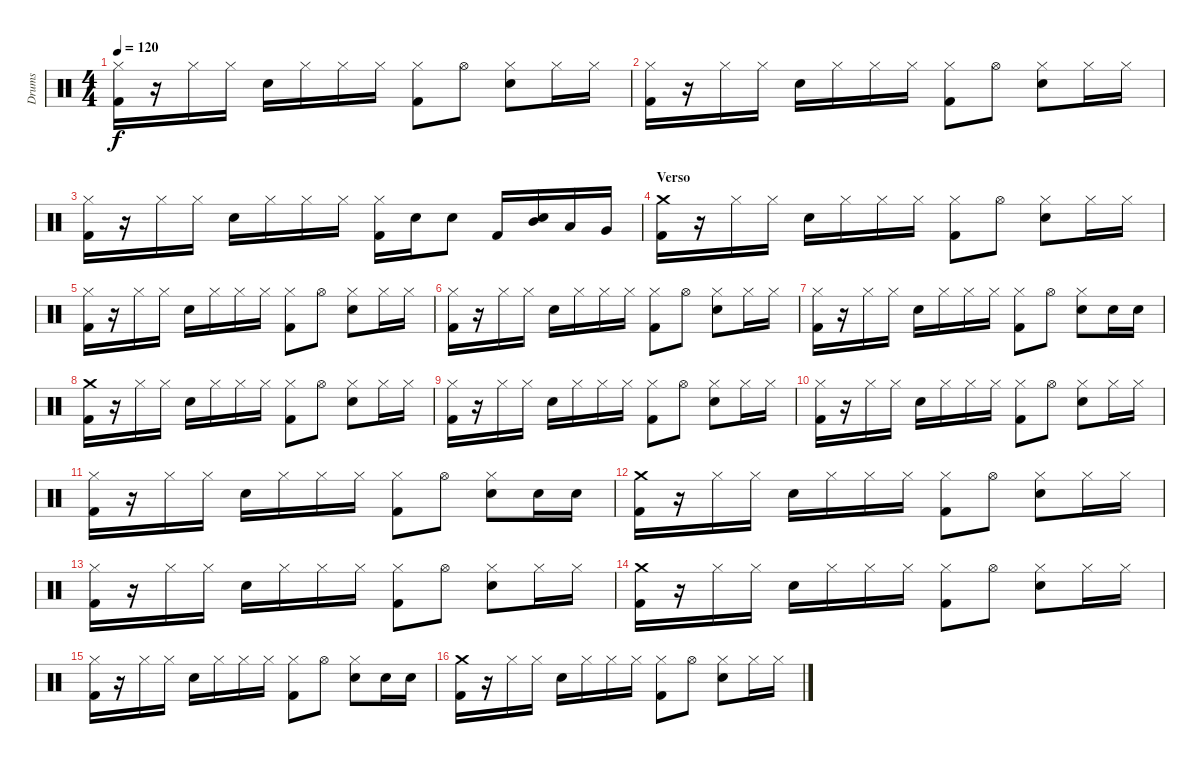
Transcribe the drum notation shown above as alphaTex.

\track ("Drums" "Drums") {instrument percussion}
\staff {score}
\articulation defaults
\ts (4 4)
\tempo 120
\clef neutral
\ks c
("Hi-Hat (closed)" "Kick (hit) 2").16{dy f} r.16 "Hi-Hat (closed)".16 "Hi-Hat (closed)".16 "Electric Snare (hit)".16 "Hi-Hat (closed)".16 "Hi-Hat (closed)".16 "Hi-Hat (closed)".16 ("Hi-Hat (closed)" "Kick (hit) 2").8 "Hi-Hat (open)".8 ("Hi-Hat (closed)" "Electric Snare (hit)").8 "Hi-Hat (closed)".16 "Hi-Hat (closed)".16 |
("Hi-Hat (closed)" "Kick (hit) 2").16 r.16 "Hi-Hat (closed)".16 "Hi-Hat (closed)".16 "Electric Snare (hit)".16 "Hi-Hat (closed)".16 "Hi-Hat (closed)".16 "Hi-Hat (closed)".16 ("Hi-Hat (closed)" "Kick (hit) 2").8 "Hi-Hat (open)".8 ("Hi-Hat (closed)" "Electric Snare (hit)").8 "Hi-Hat (closed)".16 "Hi-Hat (closed)".16 |
("Hi-Hat (closed)" "Kick (hit) 2").16 r.16 "Hi-Hat (closed)".16 "Hi-Hat (closed)".16 "Electric Snare (hit)".16 "Hi-Hat (closed)".16 "Hi-Hat (closed)".16 "Hi-Hat (closed)".16 ("Hi-Hat (closed)" "Kick (hit) 2").16 "Electric Snare (hit)".16 "Electric Snare (hit)".8 "Kick (hit) 2".16 ("Mid Tom (hit)" "Electric Snare (hit)").16 "Low Tom (hit)".16 "Very Low Tom (hit)".16 |
\section ("" "Verso")
("Crash medium (hit)" "Kick (hit) 2").16 r.16 "Hi-Hat (closed)".16 "Hi-Hat (closed)".16 "Electric Snare (hit)".16 "Hi-Hat (closed)".16 "Hi-Hat (closed)".16 "Hi-Hat (closed)".16 ("Hi-Hat (closed)" "Kick (hit) 2").8 "Hi-Hat (open)".8 ("Hi-Hat (closed)" "Electric Snare (hit)").8 "Hi-Hat (closed)".16 "Hi-Hat (closed)".16 |
("Hi-Hat (closed)" "Kick (hit) 2").16 r.16 "Hi-Hat (closed)".16 "Hi-Hat (closed)".16 "Electric Snare (hit)".16 "Hi-Hat (closed)".16 "Hi-Hat (closed)".16 "Hi-Hat (closed)".16 ("Hi-Hat (closed)" "Kick (hit) 2").8 "Hi-Hat (open)".8 ("Hi-Hat (closed)" "Electric Snare (hit)").8 "Hi-Hat (closed)".16 "Hi-Hat (closed)".16 |
("Hi-Hat (closed)" "Kick (hit) 2").16 r.16 "Hi-Hat (closed)".16 "Hi-Hat (closed)".16 "Electric Snare (hit)".16 "Hi-Hat (closed)".16 "Hi-Hat (closed)".16 "Hi-Hat (closed)".16 ("Hi-Hat (closed)" "Kick (hit) 2").8 "Hi-Hat (open)".8 ("Hi-Hat (closed)" "Electric Snare (hit)").8 "Hi-Hat (closed)".16 "Hi-Hat (closed)".16 |
("Hi-Hat (closed)" "Kick (hit) 2").16 r.16 "Hi-Hat (closed)".16 "Hi-Hat (closed)".16 "Electric Snare (hit)".16 "Hi-Hat (closed)".16 "Hi-Hat (closed)".16 "Hi-Hat (closed)".16 ("Hi-Hat (closed)" "Kick (hit) 2").8 "Hi-Hat (open)".8 ("Hi-Hat (closed)" "Electric Snare (hit)").8 "Electric Snare (hit)".16 "Electric Snare (hit)".16 |
("Crash medium (hit)" "Kick (hit) 2").16 r.16 "Hi-Hat (closed)".16 "Hi-Hat (closed)".16 "Electric Snare (hit)".16 "Hi-Hat (closed)".16 "Hi-Hat (closed)".16 "Hi-Hat (closed)".16 ("Hi-Hat (closed)" "Kick (hit) 2").8 "Hi-Hat (open)".8 ("Hi-Hat (closed)" "Electric Snare (hit)").8 "Hi-Hat (closed)".16 "Hi-Hat (closed)".16 |
("Hi-Hat (closed)" "Kick (hit) 2").16 r.16 "Hi-Hat (closed)".16 "Hi-Hat (closed)".16 "Electric Snare (hit)".16 "Hi-Hat (closed)".16 "Hi-Hat (closed)".16 "Hi-Hat (closed)".16 ("Hi-Hat (closed)" "Kick (hit) 2").8 "Hi-Hat (open)".8 ("Hi-Hat (closed)" "Electric Snare (hit)").8 "Hi-Hat (closed)".16 "Hi-Hat (closed)".16 |
("Hi-Hat (closed)" "Kick (hit) 2").16 r.16 "Hi-Hat (closed)".16 "Hi-Hat (closed)".16 "Electric Snare (hit)".16 "Hi-Hat (closed)".16 "Hi-Hat (closed)".16 "Hi-Hat (closed)".16 ("Hi-Hat (closed)" "Kick (hit) 2").8 "Hi-Hat (open)".8 ("Hi-Hat (closed)" "Electric Snare (hit)").8 "Hi-Hat (closed)".16 "Hi-Hat (closed)".16 |
("Hi-Hat (closed)" "Kick (hit) 2").16 r.16 "Hi-Hat (closed)".16 "Hi-Hat (closed)".16 "Electric Snare (hit)".16 "Hi-Hat (closed)".16 "Hi-Hat (closed)".16 "Hi-Hat (closed)".16 ("Hi-Hat (closed)" "Kick (hit) 2").8 "Hi-Hat (open)".8 ("Hi-Hat (closed)" "Electric Snare (hit)").8 "Electric Snare (hit)".16 "Electric Snare (hit)".16 |
("Crash medium (hit)" "Kick (hit) 2").16 r.16 "Hi-Hat (closed)".16 "Hi-Hat (closed)".16 "Electric Snare (hit)".16 "Hi-Hat (closed)".16 "Hi-Hat (closed)".16 "Hi-Hat (closed)".16 ("Hi-Hat (closed)" "Kick (hit) 2").8 "Hi-Hat (open)".8 ("Hi-Hat (closed)" "Electric Snare (hit)").8 "Hi-Hat (closed)".16 "Hi-Hat (closed)".16 |
("Hi-Hat (closed)" "Kick (hit) 2").16 r.16 "Hi-Hat (closed)".16 "Hi-Hat (closed)".16 "Electric Snare (hit)".16 "Hi-Hat (closed)".16 "Hi-Hat (closed)".16 "Hi-Hat (closed)".16 ("Hi-Hat (closed)" "Kick (hit) 2").8 "Hi-Hat (open)".8 ("Hi-Hat (closed)" "Electric Snare (hit)").8 "Hi-Hat (closed)".16 "Hi-Hat (closed)".16 |
("Crash medium (hit)" "Kick (hit) 2").16 r.16 "Hi-Hat (closed)".16 "Hi-Hat (closed)".16 "Electric Snare (hit)".16 "Hi-Hat (closed)".16 "Hi-Hat (closed)".16 "Hi-Hat (closed)".16 ("Hi-Hat (closed)" "Kick (hit) 2").8 "Hi-Hat (open)".8 ("Hi-Hat (closed)" "Electric Snare (hit)").8 "Hi-Hat (closed)".16 "Hi-Hat (closed)".16 |
("Hi-Hat (closed)" "Kick (hit) 2").16 r.16 "Hi-Hat (closed)".16 "Hi-Hat (closed)".16 "Electric Snare (hit)".16 "Hi-Hat (closed)".16 "Hi-Hat (closed)".16 "Hi-Hat (closed)".16 ("Hi-Hat (closed)" "Kick (hit) 2").8 "Hi-Hat (open)".8 ("Hi-Hat (closed)" "Electric Snare (hit)").8 "Electric Snare (hit)".16 "Electric Snare (hit)".16 |
("Crash medium (hit)" "Kick (hit) 2").16 r.16 "Hi-Hat (closed)".16 "Hi-Hat (closed)".16 "Electric Snare (hit)".16 "Hi-Hat (closed)".16 "Hi-Hat (closed)".16 "Hi-Hat (closed)".16 ("Hi-Hat (closed)" "Kick (hit) 2").8 "Hi-Hat (open)".8 ("Hi-Hat (closed)" "Electric Snare (hit)").8 "Hi-Hat (closed)".16 "Hi-Hat (closed)".16
